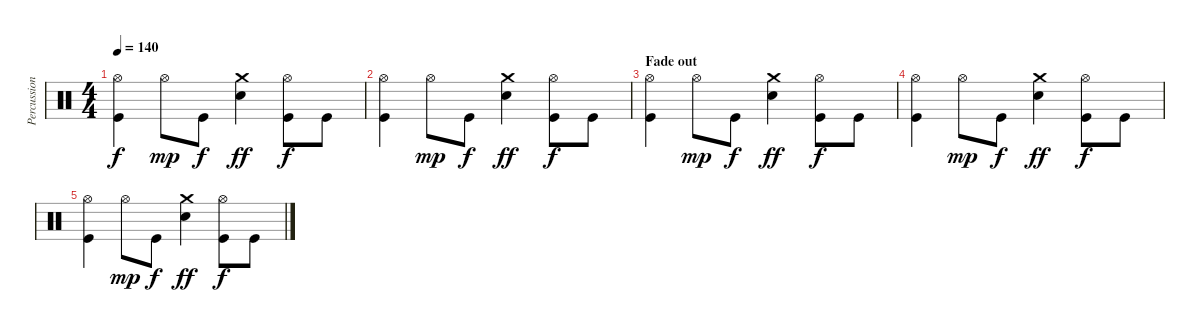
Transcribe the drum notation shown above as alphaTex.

\track ("Percussion" "Percussion") {instrument percussion}
\staff {score}
\articulation defaults
\ts (4 4)
\tempo 140
\clef neutral
\ks c
("Hi-Hat (open)" "Kick (hit)").4{dy f} "Hi-Hat (open)".8{dy mp} "Kick (hit)".8{dy f} ("Crash medium (hit)" "Electric Snare (hit)").4{dy ff} ("Hi-Hat (open)" "Kick (hit)").8{dy f} "Kick (hit)".8 |
("Hi-Hat (open)" "Kick (hit)").4 "Hi-Hat (open)".8{dy mp} "Kick (hit)".8{dy f} ("Crash medium (hit)" "Electric Snare (hit)").4{dy ff} ("Hi-Hat (open)" "Kick (hit)").8{dy f} "Kick (hit)".8 |
\section ("" "Fade out")
("Hi-Hat (open)" "Kick (hit)").4 "Hi-Hat (open)".8{dy mp} "Kick (hit)".8{dy f} ("Crash medium (hit)" "Electric Snare (hit)").4{dy ff} ("Hi-Hat (open)" "Kick (hit)").8{dy f} "Kick (hit)".8 |
("Hi-Hat (open)" "Kick (hit)").4 "Hi-Hat (open)".8{dy mp} "Kick (hit)".8{dy f} ("Crash medium (hit)" "Electric Snare (hit)").4{dy ff} ("Hi-Hat (open)" "Kick (hit)").8{dy f} "Kick (hit)".8 |
("Hi-Hat (open)" "Kick (hit)").4 "Hi-Hat (open)".8{dy mp} "Kick (hit)".8{dy f} ("Crash medium (hit)" "Electric Snare (hit)").4{dy ff} ("Hi-Hat (open)" "Kick (hit)").8{dy f} "Kick (hit)".8
